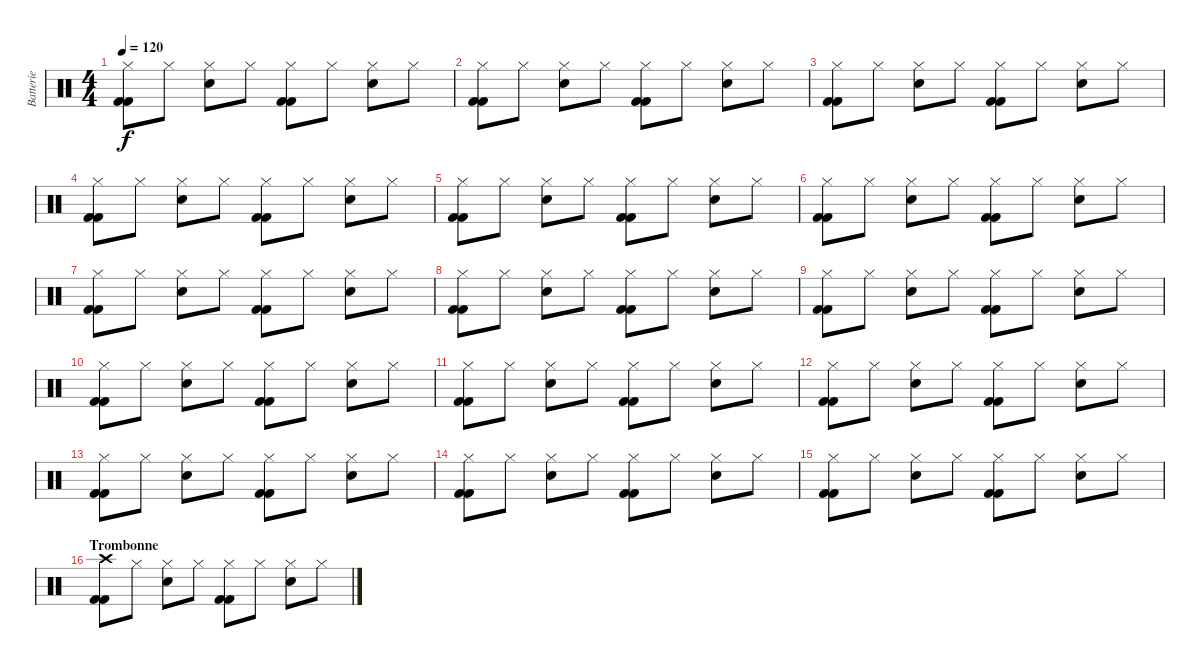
\track ("Batterie" "Batterie") {instrument percussion}
\staff {score}
\articulation defaults
\ts (4 4)
\tempo 120
\clef neutral
\ks c
("Hi-Hat (closed)" "Kick (hit) 2" "Kick (hit) 2").8{dy f} "Hi-Hat (closed)".8 ("Hi-Hat (closed)" "Snare (hit) 2").8 "Hi-Hat (closed)".8 ("Hi-Hat (closed)" "Kick (hit) 2" "Kick (hit) 2").8 "Hi-Hat (closed)".8 ("Hi-Hat (closed)" "Snare (hit) 2").8 "Hi-Hat (closed)".8 |
("Hi-Hat (closed)" "Kick (hit) 2" "Kick (hit) 2").8 "Hi-Hat (closed)".8 ("Hi-Hat (closed)" "Snare (hit) 2").8 "Hi-Hat (closed)".8 ("Hi-Hat (closed)" "Kick (hit) 2" "Kick (hit) 2").8 "Hi-Hat (closed)".8 ("Hi-Hat (closed)" "Snare (hit) 2").8 "Hi-Hat (closed)".8 |
("Hi-Hat (closed)" "Kick (hit) 2" "Kick (hit) 2").8 "Hi-Hat (closed)".8 ("Hi-Hat (closed)" "Snare (hit) 2").8 "Hi-Hat (closed)".8 ("Hi-Hat (closed)" "Kick (hit) 2" "Kick (hit) 2").8 "Hi-Hat (closed)".8 ("Hi-Hat (closed)" "Snare (hit) 2").8 "Hi-Hat (closed)".8 |
("Hi-Hat (closed)" "Kick (hit) 2" "Kick (hit) 2").8 "Hi-Hat (closed)".8 ("Hi-Hat (closed)" "Snare (hit) 2").8 "Hi-Hat (closed)".8 ("Hi-Hat (closed)" "Kick (hit) 2" "Kick (hit) 2").8 "Hi-Hat (closed)".8 ("Hi-Hat (closed)" "Snare (hit) 2").8 "Hi-Hat (closed)".8 |
("Hi-Hat (closed)" "Kick (hit) 2" "Kick (hit) 2").8 "Hi-Hat (closed)".8 ("Hi-Hat (closed)" "Snare (hit) 2").8 "Hi-Hat (closed)".8 ("Hi-Hat (closed)" "Kick (hit) 2" "Kick (hit) 2").8 "Hi-Hat (closed)".8 ("Hi-Hat (closed)" "Snare (hit) 2").8 "Hi-Hat (closed)".8 |
("Hi-Hat (closed)" "Kick (hit) 2" "Kick (hit) 2").8 "Hi-Hat (closed)".8 ("Hi-Hat (closed)" "Snare (hit) 2").8 "Hi-Hat (closed)".8 ("Hi-Hat (closed)" "Kick (hit) 2" "Kick (hit) 2").8 "Hi-Hat (closed)".8 ("Hi-Hat (closed)" "Snare (hit) 2").8 "Hi-Hat (closed)".8 |
("Hi-Hat (closed)" "Kick (hit) 2" "Kick (hit) 2").8 "Hi-Hat (closed)".8 ("Hi-Hat (closed)" "Snare (hit) 2").8 "Hi-Hat (closed)".8 ("Hi-Hat (closed)" "Kick (hit) 2" "Kick (hit) 2").8 "Hi-Hat (closed)".8 ("Hi-Hat (closed)" "Snare (hit) 2").8 "Hi-Hat (closed)".8 |
("Hi-Hat (closed)" "Kick (hit) 2" "Kick (hit) 2").8 "Hi-Hat (closed)".8 ("Hi-Hat (closed)" "Snare (hit) 2").8 "Hi-Hat (closed)".8 ("Hi-Hat (closed)" "Kick (hit) 2" "Kick (hit) 2").8 "Hi-Hat (closed)".8 ("Hi-Hat (closed)" "Snare (hit) 2").8 "Hi-Hat (closed)".8 |
("Hi-Hat (closed)" "Kick (hit) 2" "Kick (hit) 2").8 "Hi-Hat (closed)".8 ("Hi-Hat (closed)" "Snare (hit) 2").8 "Hi-Hat (closed)".8 ("Hi-Hat (closed)" "Kick (hit) 2" "Kick (hit) 2").8 "Hi-Hat (closed)".8 ("Hi-Hat (closed)" "Snare (hit) 2").8 "Hi-Hat (closed)".8 |
("Hi-Hat (closed)" "Kick (hit) 2" "Kick (hit) 2").8 "Hi-Hat (closed)".8 ("Hi-Hat (closed)" "Snare (hit) 2").8 "Hi-Hat (closed)".8 ("Hi-Hat (closed)" "Kick (hit) 2" "Kick (hit) 2").8 "Hi-Hat (closed)".8 ("Hi-Hat (closed)" "Snare (hit) 2").8 "Hi-Hat (closed)".8 |
("Hi-Hat (closed)" "Kick (hit) 2" "Kick (hit) 2").8 "Hi-Hat (closed)".8 ("Hi-Hat (closed)" "Snare (hit) 2").8 "Hi-Hat (closed)".8 ("Hi-Hat (closed)" "Kick (hit) 2" "Kick (hit) 2").8 "Hi-Hat (closed)".8 ("Hi-Hat (closed)" "Snare (hit) 2").8 "Hi-Hat (closed)".8 |
("Hi-Hat (closed)" "Kick (hit) 2" "Kick (hit) 2").8 "Hi-Hat (closed)".8 ("Hi-Hat (closed)" "Snare (hit) 2").8 "Hi-Hat (closed)".8 ("Hi-Hat (closed)" "Kick (hit) 2" "Kick (hit) 2").8 "Hi-Hat (closed)".8 ("Hi-Hat (closed)" "Snare (hit) 2").8 "Hi-Hat (closed)".8 |
("Hi-Hat (closed)" "Kick (hit) 2" "Kick (hit) 2").8 "Hi-Hat (closed)".8 ("Hi-Hat (closed)" "Snare (hit) 2").8 "Hi-Hat (closed)".8 ("Hi-Hat (closed)" "Kick (hit) 2" "Kick (hit) 2").8 "Hi-Hat (closed)".8 ("Hi-Hat (closed)" "Snare (hit) 2").8 "Hi-Hat (closed)".8 |
("Hi-Hat (closed)" "Kick (hit) 2" "Kick (hit) 2").8 "Hi-Hat (closed)".8 ("Hi-Hat (closed)" "Snare (hit) 2").8 "Hi-Hat (closed)".8 ("Hi-Hat (closed)" "Kick (hit) 2" "Kick (hit) 2").8 "Hi-Hat (closed)".8 ("Hi-Hat (closed)" "Snare (hit) 2").8 "Hi-Hat (closed)".8 |
("Hi-Hat (closed)" "Kick (hit) 2" "Kick (hit) 2").8 "Hi-Hat (closed)".8 ("Hi-Hat (closed)" "Snare (hit) 2").8 "Hi-Hat (closed)".8 ("Hi-Hat (closed)" "Kick (hit) 2" "Kick (hit) 2").8 "Hi-Hat (closed)".8 ("Hi-Hat (closed)" "Snare (hit) 2").8 "Hi-Hat (closed)".8 |
\section ("" "Trombonne")
("Crash high (hit)" "Kick (hit) 2" "Kick (hit) 2").8 "Hi-Hat (closed)".8 ("Hi-Hat (closed)" "Snare (hit) 2").8 "Hi-Hat (closed)".8 ("Hi-Hat (closed)" "Kick (hit) 2" "Kick (hit) 2").8 "Hi-Hat (closed)".8 ("Hi-Hat (closed)" "Snare (hit) 2").8 "Hi-Hat (closed)".8
